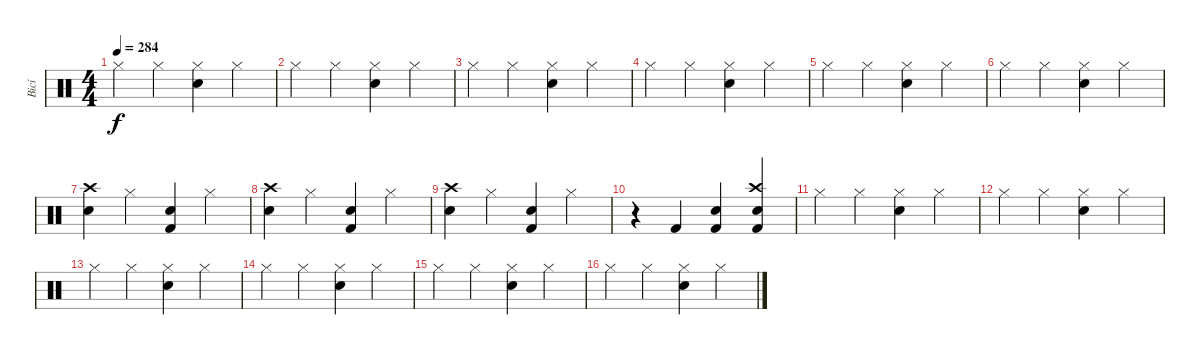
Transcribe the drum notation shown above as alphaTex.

\track ("Bicí" "Bicí") {instrument percussion}
\staff {score}
\articulation defaults
\ts (4 4)
\tempo 284
\clef neutral
\ks c "Hi-Hat (closed)".4{dy f} "Hi-Hat (closed)".4
("Hi-Hat (closed)" "Electric Snare (hit)").4 "Hi-Hat (closed)".4 |
"Hi-Hat (closed)".4 "Hi-Hat (closed)".4 ("Hi-Hat (closed)" "Electric Snare (hit)").4 "Hi-Hat (closed)".4 |
"Hi-Hat (closed)".4 "Hi-Hat (closed)".4 ("Hi-Hat (closed)" "Electric Snare (hit)").4 "Hi-Hat (closed)".4 |
"Hi-Hat (closed)".4 "Hi-Hat (closed)".4 ("Hi-Hat (closed)" "Electric Snare (hit)").4 "Hi-Hat (closed)".4 |
"Hi-Hat (closed)".4 "Hi-Hat (closed)".4 ("Hi-Hat (closed)" "Electric Snare (hit)").4 "Hi-Hat (closed)".4 |
"Hi-Hat (closed)".4 "Hi-Hat (closed)".4 ("Hi-Hat (closed)" "Electric Snare (hit)").4 "Hi-Hat (closed)".4 |
("Crash high (hit)" "Electric Snare (hit)").4 "Hi-Hat (closed)".4 ("Electric Snare (hit)" "Kick (hit) 2").4 "Hi-Hat (closed)".4 |
("Crash high (hit)" "Electric Snare (hit)").4 "Hi-Hat (closed)".4 ("Electric Snare (hit)" "Kick (hit) 2").4 "Hi-Hat (closed)".4 |
("Crash high (hit)" "Electric Snare (hit)").4 "Hi-Hat (closed)".4 ("Electric Snare (hit)" "Kick (hit) 2").4 "Hi-Hat (closed)".4 |
r.4 "Kick (hit) 2".4 ("Electric Snare (hit)" "Kick (hit) 2").4 ("Crash high (hit)" "Electric Snare (hit)" "Kick (hit) 2").4 |
"Hi-Hat (closed)".4 "Hi-Hat (closed)".4 ("Hi-Hat (closed)" "Electric Snare (hit)").4 "Hi-Hat (closed)".4 |
"Hi-Hat (closed)".4 "Hi-Hat (closed)".4 ("Hi-Hat (closed)" "Electric Snare (hit)").4 "Hi-Hat (closed)".4 |
"Hi-Hat (closed)".4 "Hi-Hat (closed)".4 ("Hi-Hat (closed)" "Electric Snare (hit)").4 "Hi-Hat (closed)".4 |
"Hi-Hat (closed)".4 "Hi-Hat (closed)".4 ("Hi-Hat (closed)" "Electric Snare (hit)").4 "Hi-Hat (closed)".4 |
"Hi-Hat (closed)".4 "Hi-Hat (closed)".4 ("Hi-Hat (closed)" "Electric Snare (hit)").4 "Hi-Hat (closed)".4 |
"Hi-Hat (closed)".4 "Hi-Hat (closed)".4 ("Hi-Hat (closed)" "Electric Snare (hit)").4 "Hi-Hat (closed)".4
